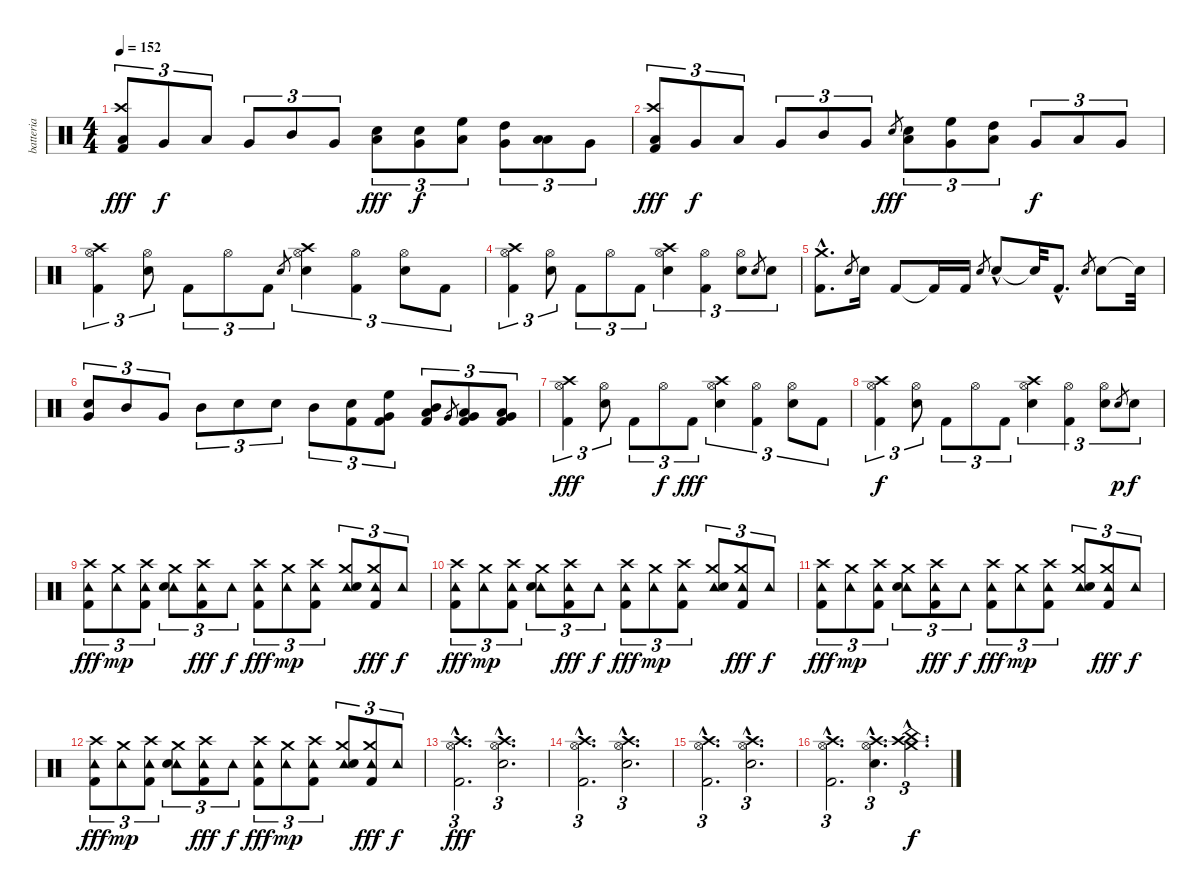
\track ("batteria" "batteria") {instrument percussion}
\staff {score}
\articulation defaults
\ts (4 4)
\tempo 152
\clef neutral
\ks c
("Low Floor Tom (hit)" "Crash high (hit)" "Kick (hit) 2").8{tu (3 2) dy fff} "Very Low Tom (hit)".8{tu (3 2) dy f} "Low Floor Tom (hit)".8{tu (3 2)} "Very Low Tom (hit)".8{tu (3 2)} "Mid Tom (hit)".8{tu (3 2)} "Very Low Tom (hit)".8{tu (3 2)} ("Low Tom (hit)" "Electric Snare (hit)").8{tu (3 2) dy fff} ("Very Low Tom (hit)" "Electric Snare (hit)").8{tu (3 2) dy f} ("Low Floor Tom (hit)" "High Floor Tom (hit)").8{tu (3 2)} ("Very Low Tom (hit)" "High Tom (hit)").8{tu (3 2)} ("Low Tom (hit)" "Low Floor Tom (hit)").8{tu (3 2)} "Very Low Tom (hit)".8{tu (3 2)} |
("Low Floor Tom (hit)" "Crash high (hit)" "Kick (hit) 2").8{tu (3 2) dy fff} "Very Low Tom (hit)".8{tu (3 2) dy f} "Low Floor Tom (hit)".8{tu (3 2)} "Very Low Tom (hit)".8{tu (3 2)} "Mid Tom (hit)".8{tu (3 2)} "Very Low Tom (hit)".8{tu (3 2)} "Electric Snare (hit)".8{gr dy fff} ("Low Tom (hit)" "Electric Snare (hit)").8{tu (3 2)} ("Very Low Tom (hit)" "High Floor Tom (hit)").8{tu (3 2)} ("Low Floor Tom (hit)" "High Tom (hit)").8{tu (3 2)} "Very Low Tom (hit)".8{tu (3 2) dy f} "Low Tom (hit)".8{tu (3 2)} "Very Low Tom (hit)".8{tu (3 2)} |
("Hi-Hat (open)" "Crash high (hit)" "Kick (hit) 2").4{tu (3 2)} ("Hi-Hat (open)" "Electric Snare (hit)").8{tu (3 2)} "Kick (hit) 2".8{tu (3 2)} "Hi-Hat (open)".8{tu (3 2)} "Kick (hit) 2".8{tu (3 2)} "Electric Snare (hit)".8{gr} ("Hi-Hat (open)" "Crash high (hit)" "Electric Snare (hit)").4{tu (3 2)} ("Hi-Hat (open)" "Kick (hit) 2").4{tu (3 2)} ("Hi-Hat (open)" "Electric Snare (hit)").8{tu (3 2)} "Kick (hit) 2".8{tu (3 2)} |
("Hi-Hat (open)" "Crash high (hit)" "Kick (hit) 2").4{tu (3 2)} ("Hi-Hat (open)" "Electric Snare (hit)").8{tu (3 2)} "Kick (hit) 2".8{tu (3 2)} "Hi-Hat (open)".8{tu (3 2)} "Kick (hit) 2".8{tu (3 2)} ("Hi-Hat (open)" "Crash high (hit)" "Electric Snare (hit)").4{tu (3 2)} ("Hi-Hat (open)" "Kick (hit) 2").4{tu (3 2)} ("Hi-Hat (open)" "Electric Snare (hit)").8{tu (3 2)} "Electric Snare (hit)".8{gr} "Electric Snare (hit)".8{tu (3 2)} |
("Crash medium (hit)"{hac} "Kick (hit) 2"{hac}).8{d} "Electric Snare (hit)".8{gr} "Electric Snare (hit)".16 "Kick (hit) 2".8 "Kick (hit) 2"{t}.16 "Kick (hit) 2".16 "Electric Snare (hit)".8{gr} "Electric Snare (hit)"{hac}.8 "Electric Snare (hit)"{t}.32 "Kick (hit) 2"{hac}.8{d} "Electric Snare (hit)".8{gr} "Electric Snare (hit)".8 "Electric Snare (hit)"{t}.32 |
("Very Low Tom (hit)" "Electric Snare (hit)").8{tu (3 2)} "Mid Tom (hit)".8{tu (3 2)} "Very Low Tom (hit)".8{tu (3 2)} "Mid Tom (hit)".8{tu (3 2)} "Electric Snare (hit)".8{tu (3 2)} "Electric Snare (hit)".8{tu (3 2)} "Mid Tom (hit)".8{tu (3 2)} ("Electric Snare (hit)" "Kick (hit) 2").8{tu (3 2)} ("Very Low Tom (hit)" "High Floor Tom (hit)" "Kick (hit) 2").8{tu (3 2)} ("Low Tom (hit)" "Mid Tom (hit)" "Kick (hit) 2").8{tu (3 2)} "Very Low Tom (hit)".8{gr} ("Low Tom (hit)" "Very Low Tom (hit)" "Kick (hit) 2").8{tu (3 2)} ("Low Floor Tom (hit)" "Very Low Tom (hit)" "Kick (hit) 2").8{tu (3 2)} |
("Hi-Hat (open)" "Crash high (hit)" "Kick (hit) 2").4{tu (3 2) dy fff} ("Hi-Hat (open)" "Electric Snare (hit)").8{tu (3 2)} "Kick (hit) 2".8{tu (3 2)} "Hi-Hat (open)".8{tu (3 2) dy f} "Kick (hit) 2".8{tu (3 2) dy fff} ("Hi-Hat (open)" "Crash high (hit)" "Electric Snare (hit)").4{tu (3 2)} ("Hi-Hat (open)" "Kick (hit) 2").4{tu (3 2)} ("Hi-Hat (open)" "Electric Snare (hit)").8{tu (3 2)} "Kick (hit) 2".8{tu (3 2)} |
("Hi-Hat (open)" "Crash high (hit)" "Kick (hit) 2").4{tu (3 2) dy f} ("Hi-Hat (open)" "Electric Snare (hit)").8{tu (3 2)} "Kick (hit) 2".8{tu (3 2)} "Hi-Hat (open)".8{tu (3 2)} "Kick (hit) 2".8{tu (3 2)} ("Hi-Hat (open)" "Crash high (hit)" "Electric Snare (hit)").4{tu (3 2)} ("Hi-Hat (open)" "Kick (hit) 2").4{tu (3 2)} ("Hi-Hat (open)" "Electric Snare (hit)").8{tu (3 2)} "Electric Snare (hit)"{h}.8{gr dy p} "Electric Snare (hit)".8{tu (3 2) dy f} |
("Tambourine (hit)" "Crash high (hit)" "Kick (hit) 2").8{tu (3 2) dy fff} ("Tambourine (hit)" "Crash medium (hit)").8{tu (3 2) dy mp} ("Tambourine (hit)" "Crash high (hit)" "Kick (hit) 2").8{tu (3 2)} ("Tambourine (hit)" "Crash medium (hit)" "Electric Snare (hit)").8{tu (3 2)} ("Tambourine (hit)" "Crash high (hit)" "Kick (hit) 2").8{tu (3 2) dy fff} "Tambourine (hit)".8{tu (3 2) dy f} ("Tambourine (hit)" "Crash high (hit)" "Kick (hit) 2").8{tu (3 2) dy fff} ("Tambourine (hit)" "Crash medium (hit)").8{tu (3 2) dy mp} ("Tambourine (hit)" "Crash high (hit)" "Kick (hit) 2").8{tu (3 2)} ("Tambourine (hit)" "Crash medium (hit)" "Electric Snare (hit)").8{tu (3 2)} ("Tambourine (hit)" "Crash medium (hit)" "Kick (hit) 2").8{tu (3 2) dy fff} "Tambourine (hit)".8{tu (3 2) dy f} |
("Tambourine (hit)" "Crash high (hit)" "Kick (hit) 2").8{tu (3 2) dy fff} ("Tambourine (hit)" "Crash medium (hit)").8{tu (3 2) dy mp} ("Tambourine (hit)" "Crash high (hit)" "Kick (hit) 2").8{tu (3 2)} ("Tambourine (hit)" "Crash medium (hit)" "Electric Snare (hit)").8{tu (3 2)} ("Tambourine (hit)" "Crash high (hit)" "Kick (hit) 2").8{tu (3 2) dy fff} "Tambourine (hit)".8{tu (3 2) dy f} ("Tambourine (hit)" "Crash high (hit)" "Kick (hit) 2").8{tu (3 2) dy fff} ("Tambourine (hit)" "Crash medium (hit)").8{tu (3 2) dy mp} ("Tambourine (hit)" "Crash high (hit)" "Kick (hit) 2").8{tu (3 2)} ("Tambourine (hit)" "Crash medium (hit)" "Electric Snare (hit)").8{tu (3 2)} ("Tambourine (hit)" "Crash medium (hit)" "Kick (hit) 2").8{tu (3 2) dy fff} "Tambourine (hit)".8{tu (3 2) dy f} |
("Tambourine (hit)" "Crash high (hit)" "Kick (hit) 2").8{tu (3 2) dy fff} ("Tambourine (hit)" "Crash medium (hit)").8{tu (3 2) dy mp} ("Tambourine (hit)" "Crash high (hit)" "Kick (hit) 2").8{tu (3 2)} ("Tambourine (hit)" "Crash medium (hit)" "Electric Snare (hit)").8{tu (3 2)} ("Tambourine (hit)" "Crash high (hit)" "Kick (hit) 2").8{tu (3 2) dy fff} "Tambourine (hit)".8{tu (3 2) dy f} ("Tambourine (hit)" "Crash high (hit)" "Kick (hit) 2").8{tu (3 2) dy fff} ("Tambourine (hit)" "Crash medium (hit)").8{tu (3 2) dy mp} ("Tambourine (hit)" "Crash high (hit)" "Kick (hit) 2").8{tu (3 2)} ("Tambourine (hit)" "Crash medium (hit)" "Electric Snare (hit)").8{tu (3 2)} ("Tambourine (hit)" "Crash medium (hit)" "Kick (hit) 2").8{tu (3 2) dy fff} "Tambourine (hit)".8{tu (3 2) dy f} |
("Tambourine (hit)" "Crash high (hit)" "Kick (hit) 2").8{tu (3 2) dy fff} ("Tambourine (hit)" "Crash medium (hit)").8{tu (3 2) dy mp} ("Tambourine (hit)" "Crash high (hit)" "Kick (hit) 2").8{tu (3 2)} ("Tambourine (hit)" "Crash medium (hit)" "Electric Snare (hit)").8{tu (3 2)} ("Tambourine (hit)" "Crash high (hit)" "Kick (hit) 2").8{tu (3 2) dy fff} "Tambourine (hit)".8{tu (3 2) dy f} ("Tambourine (hit)" "Crash high (hit)" "Kick (hit) 2").8{tu (3 2) dy fff} ("Tambourine (hit)" "Crash medium (hit)").8{tu (3 2) dy mp} ("Tambourine (hit)" "Crash high (hit)" "Kick (hit) 2").8{tu (3 2)} ("Tambourine (hit)" "Crash medium (hit)" "Electric Snare (hit)").8{tu (3 2)} ("Tambourine (hit)" "Crash medium (hit)" "Kick (hit) 2").8{tu (3 2) dy fff} "Tambourine (hit)".8{tu (3 2) dy f} |
("Hi-Hat (open)"{hac} "Crash high (hit)"{hac} "Kick (hit) 2"{hac}).2{d tu (3 2) dy fff} ("Hi-Hat (open)"{hac} "Crash high (hit)"{hac} "Electric Snare (hit)"{hac}).2{d tu (3 2)} |
("Hi-Hat (open)"{hac} "Crash high (hit)"{hac} "Kick (hit) 2"{hac}).2{d tu (3 2)} ("Hi-Hat (open)"{hac} "Crash high (hit)"{hac} "Electric Snare (hit)"{hac}).2{d tu (3 2)} |
("Hi-Hat (open)"{hac} "Crash high (hit)"{hac} "Kick (hit) 2"{hac}).2{d tu (3 2)} ("Hi-Hat (open)"{hac} "Crash high (hit)"{hac} "Electric Snare (hit)"{hac}).2{d tu (3 2)} |
("Hi-Hat (open)"{hac} "Crash high (hit)"{hac} "Kick (hit) 2"{hac}).2{d tu (3 2)} ("Hi-Hat (open)"{hac} "Crash high (hit)"{hac} "Electric Snare (hit)"{hac}).4{d tu (3 2)} ("Crash medium (hit)"{hac} "Crash high (hit)"{hac} "China (hit)"{hac}).4{d tu (3 2) dy f}
